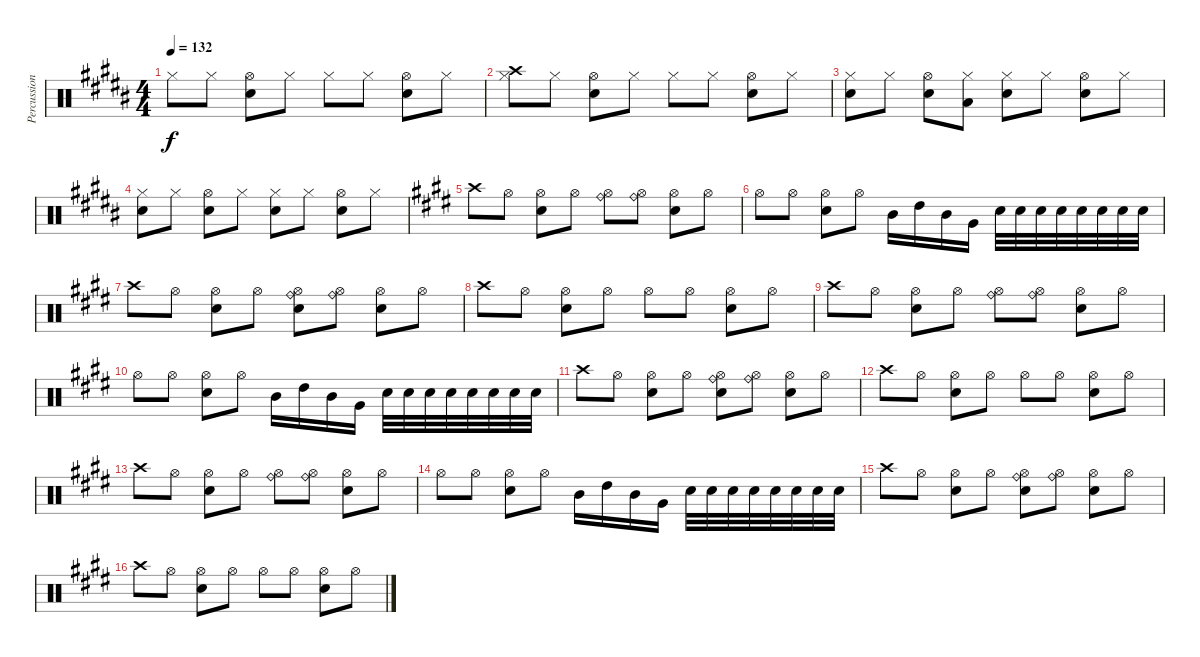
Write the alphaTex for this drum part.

\track ("Percussion (Gelnn Porter)" "Percussion") {instrument percussion}
\staff {score}
\articulation defaults
\ts (4 4)
\tempo 132
\clef neutral
\ks b "Hi-Hat (closed)".8{dy f} "Hi-Hat (closed)".8
("Hi-Hat (open)" "Snare (hit) 2").8 "Hi-Hat (closed)".8 "Hi-Hat (closed)".8 "Hi-Hat (closed)".8 ("Hi-Hat (open)" "Snare (hit) 2").8 "Hi-Hat (closed)".8 |
("Crash high (hit)" "Hi-Hat (closed)").8 "Hi-Hat (closed)".8 ("Hi-Hat (open)" "Snare (hit) 2").8 "Hi-Hat (closed)".8 "Hi-Hat (closed)".8 "Hi-Hat (closed)".8 ("Hi-Hat (open)" "Snare (hit) 2").8 "Hi-Hat (closed)".8 |
("Hi-Hat (closed)" "Snare (hit) 2").8 "Hi-Hat (closed)".8 ("Hi-Hat (open)" "Snare (hit) 2").8 ("Hi-Hat (closed)" "Low Tom (hit)").8 ("Hi-Hat (closed)" "Snare (hit) 2").8 "Hi-Hat (closed)".8 ("Hi-Hat (open)" "Snare (hit) 2").8 "Hi-Hat (closed)".8 |
("Hi-Hat (closed)" "Snare (hit) 2").8 "Hi-Hat (closed)".8 ("Hi-Hat (open)" "Snare (hit) 2").8 "Hi-Hat (closed)".8 ("Hi-Hat (closed)" "Snare (hit) 2").8 "Hi-Hat (closed)".8 ("Hi-Hat (open)" "Snare (hit) 2").8 "Hi-Hat (closed)".8 |
\ks e "Crash high (hit)".8 "Hi-Hat (open)".8
("Hi-Hat (open)" "Snare (hit) 2").8 "Hi-Hat (open)".8 ("Hi-Hat (open)" "Ride (bell)").8 ("Hi-Hat (open)" "Ride (bell)").8 ("Hi-Hat (open)" "Snare (hit) 2").8 "Hi-Hat (open)".8 |
"Hi-Hat (open)".8 "Hi-Hat (open)".8 ("Hi-Hat (open)" "Snare (hit) 2").8 "Hi-Hat (open)".8 "Mid Tom (hit)".16 "High Tom (hit)".16 "Mid Tom (hit)".16 "Very Low Tom (hit)".16 "Snare (hit) 2".32 "Snare (hit) 2".32 "Snare (hit) 2".32 "Snare (hit) 2".32 "Snare (hit) 2".32 "Snare (hit) 2".32 "Snare (hit) 2".32 "Snare (hit) 2".32 |
"Crash high (hit)".8 "Hi-Hat (open)".8 ("Hi-Hat (open)" "Snare (hit) 2").8 "Hi-Hat (open)".8 ("Hi-Hat (open)" "Ride (bell)" "Snare (hit) 2").8 ("Hi-Hat (open)" "Ride (bell)").8 ("Hi-Hat (open)" "Snare (hit) 2").8 "Hi-Hat (open)".8 |
"Crash high (hit)".8 "Hi-Hat (open)".8 ("Hi-Hat (open)" "Snare (hit) 2").8 "Hi-Hat (open)".8 "Hi-Hat (open)".8 "Hi-Hat (open)".8 ("Hi-Hat (open)" "Snare (hit) 2").8 "Hi-Hat (open)".8 |
"Crash high (hit)".8 "Hi-Hat (open)".8 ("Hi-Hat (open)" "Snare (hit) 2").8 "Hi-Hat (open)".8 ("Hi-Hat (open)" "Ride (bell)").8 ("Hi-Hat (open)" "Ride (bell)").8 ("Hi-Hat (open)" "Snare (hit) 2").8 "Hi-Hat (open)".8 |
"Hi-Hat (open)".8 "Hi-Hat (open)".8 ("Hi-Hat (open)" "Snare (hit) 2").8 "Hi-Hat (open)".8 "Mid Tom (hit)".16 "High Tom (hit)".16 "Mid Tom (hit)".16 "Very Low Tom (hit)".16 "Snare (hit) 2".32 "Snare (hit) 2".32 "Snare (hit) 2".32 "Snare (hit) 2".32 "Snare (hit) 2".32 "Snare (hit) 2".32 "Snare (hit) 2".32 "Snare (hit) 2".32 |
"Crash high (hit)".8 "Hi-Hat (open)".8 ("Hi-Hat (open)" "Snare (hit) 2").8 "Hi-Hat (open)".8 ("Hi-Hat (open)" "Ride (bell)" "Snare (hit) 2").8 ("Hi-Hat (open)" "Ride (bell)").8 ("Hi-Hat (open)" "Snare (hit) 2").8 "Hi-Hat (open)".8 |
"Crash high (hit)".8 "Hi-Hat (open)".8 ("Hi-Hat (open)" "Snare (hit) 2").8 "Hi-Hat (open)".8 "Hi-Hat (open)".8 "Hi-Hat (open)".8 ("Hi-Hat (open)" "Snare (hit) 2").8 "Hi-Hat (open)".8 |
"Crash high (hit)".8 "Hi-Hat (open)".8 ("Hi-Hat (open)" "Snare (hit) 2").8 "Hi-Hat (open)".8 ("Hi-Hat (open)" "Ride (bell)").8 ("Hi-Hat (open)" "Ride (bell)").8 ("Hi-Hat (open)" "Snare (hit) 2").8 "Hi-Hat (open)".8 |
"Hi-Hat (open)".8 "Hi-Hat (open)".8 ("Hi-Hat (open)" "Snare (hit) 2").8 "Hi-Hat (open)".8 "Mid Tom (hit)".16 "High Tom (hit)".16 "Mid Tom (hit)".16 "Very Low Tom (hit)".16 "Snare (hit) 2".32 "Snare (hit) 2".32 "Snare (hit) 2".32 "Snare (hit) 2".32 "Snare (hit) 2".32 "Snare (hit) 2".32 "Snare (hit) 2".32 "Snare (hit) 2".32 |
"Crash high (hit)".8 "Hi-Hat (open)".8 ("Hi-Hat (open)" "Snare (hit) 2").8 "Hi-Hat (open)".8 ("Hi-Hat (open)" "Ride (bell)" "Snare (hit) 2").8 ("Hi-Hat (open)" "Ride (bell)").8 ("Hi-Hat (open)" "Snare (hit) 2").8 "Hi-Hat (open)".8 |
"Crash high (hit)".8 "Hi-Hat (open)".8 ("Hi-Hat (open)" "Snare (hit) 2").8 "Hi-Hat (open)".8 "Hi-Hat (open)".8 "Hi-Hat (open)".8 ("Hi-Hat (open)" "Snare (hit) 2").8 "Hi-Hat (open)".8
